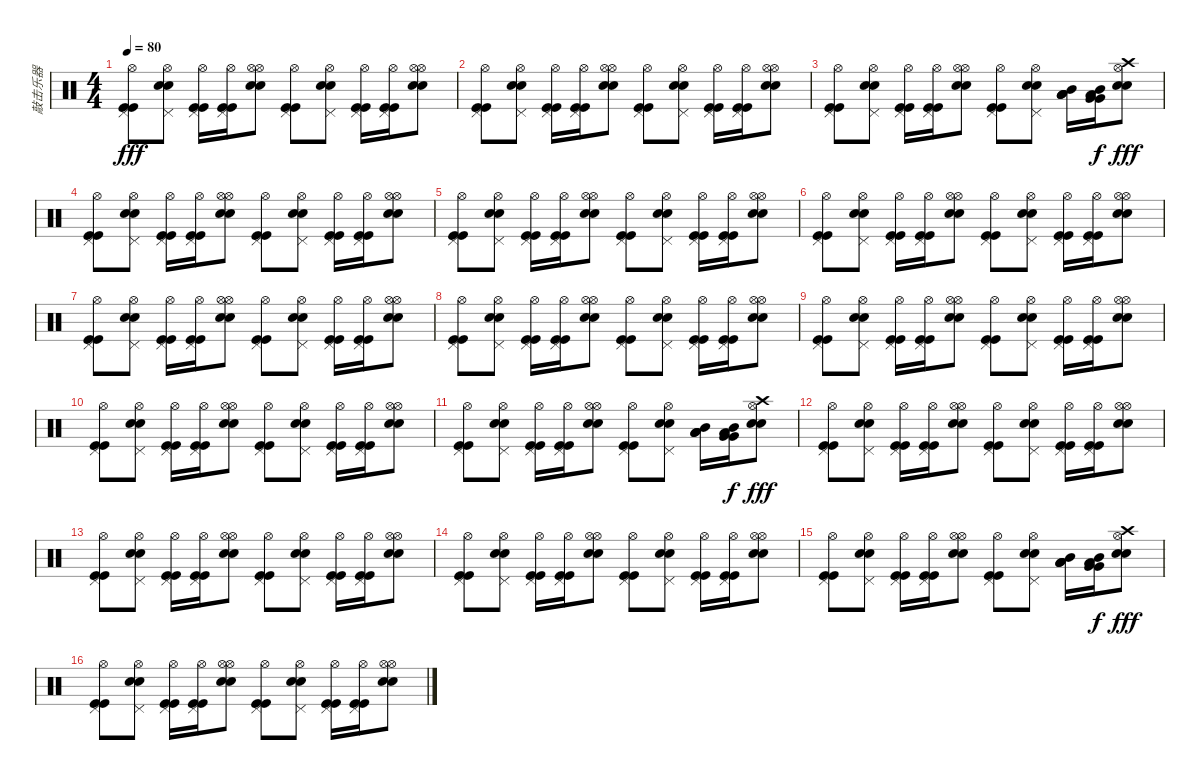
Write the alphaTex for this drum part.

\track ("敲击乐器" "敲击乐器") {instrument percussion}
\staff {score}
\articulation defaults
\ts (4 4)
\tempo 80
\clef neutral
\ks c
("Kick (hit)" "Kick (hit)" "Pedal Hi-Hat (hit)" "Hi-Hat (open)").8{dy fff} ("Electric Snare (hit)" "Electric Snare (hit)" "Pedal Hi-Hat (hit)" "Hi-Hat (open)").8 ("Kick (hit)" "Kick (hit)" "Pedal Hi-Hat (hit)" "Hi-Hat (open)").16 ("Kick (hit)" "Kick (hit)" "Pedal Hi-Hat (hit)" "Hi-Hat (open)").16 ("Electric Snare (hit)" "Electric Snare (hit)" "Hi-Hat (open)" "Hi-Hat (open)").8 ("Kick (hit)" "Kick (hit)" "Pedal Hi-Hat (hit)" "Hi-Hat (open)").8 ("Electric Snare (hit)" "Electric Snare (hit)" "Pedal Hi-Hat (hit)" "Hi-Hat (open)").8 ("Kick (hit)" "Kick (hit)" "Pedal Hi-Hat (hit)" "Hi-Hat (open)").16 ("Kick (hit)" "Kick (hit)" "Pedal Hi-Hat (hit)" "Hi-Hat (open)").16 ("Electric Snare (hit)" "Electric Snare (hit)" "Hi-Hat (open)" "Hi-Hat (open)").8 |
("Kick (hit)" "Kick (hit)" "Pedal Hi-Hat (hit)" "Hi-Hat (open)").8 ("Electric Snare (hit)" "Electric Snare (hit)" "Pedal Hi-Hat (hit)" "Hi-Hat (open)").8 ("Kick (hit)" "Kick (hit)" "Pedal Hi-Hat (hit)" "Hi-Hat (open)").16 ("Kick (hit)" "Kick (hit)" "Pedal Hi-Hat (hit)" "Hi-Hat (open)").16 ("Electric Snare (hit)" "Electric Snare (hit)" "Hi-Hat (open)" "Hi-Hat (open)").8 ("Kick (hit)" "Kick (hit)" "Pedal Hi-Hat (hit)" "Hi-Hat (open)").8 ("Electric Snare (hit)" "Electric Snare (hit)" "Pedal Hi-Hat (hit)" "Hi-Hat (open)").8 ("Kick (hit)" "Kick (hit)" "Pedal Hi-Hat (hit)" "Hi-Hat (open)").16 ("Kick (hit)" "Kick (hit)" "Pedal Hi-Hat (hit)" "Hi-Hat (open)").16 ("Electric Snare (hit)" "Electric Snare (hit)" "Hi-Hat (open)" "Hi-Hat (open)").8 |
("Kick (hit)" "Kick (hit)" "Pedal Hi-Hat (hit)" "Hi-Hat (open)").8 ("Electric Snare (hit)" "Electric Snare (hit)" "Pedal Hi-Hat (hit)" "Hi-Hat (open)").8 ("Kick (hit)" "Kick (hit)" "Pedal Hi-Hat (hit)" "Hi-Hat (open)").16 ("Kick (hit)" "Kick (hit)" "Pedal Hi-Hat (hit)" "Hi-Hat (open)").16 ("Electric Snare (hit)" "Electric Snare (hit)" "Hi-Hat (open)" "Hi-Hat (open)").8 ("Kick (hit)" "Kick (hit)" "Pedal Hi-Hat (hit)" "Hi-Hat (open)").8 ("Electric Snare (hit)" "Electric Snare (hit)" "Pedal Hi-Hat (hit)" "Hi-Hat (open)").8 ("Low Floor Tom (hit)" "Low Floor Tom (hit)" "Mid Tom (hit)" "Low Floor Tom (hit)").16 ("Very Low Tom (hit)" "Very Low Tom (hit)" "Mid Tom (hit)" "Low Floor Tom (hit)").16{dy f} ("Electric Snare (hit)" "Electric Snare (hit)" "Hi-Hat (open)" "Crash high (hit)").8{dy fff} |
("Kick (hit)" "Kick (hit)" "Pedal Hi-Hat (hit)" "Hi-Hat (open)").8 ("Electric Snare (hit)" "Electric Snare (hit)" "Pedal Hi-Hat (hit)" "Hi-Hat (open)").8 ("Kick (hit)" "Kick (hit)" "Pedal Hi-Hat (hit)" "Hi-Hat (open)").16 ("Kick (hit)" "Kick (hit)" "Pedal Hi-Hat (hit)" "Hi-Hat (open)").16 ("Electric Snare (hit)" "Electric Snare (hit)" "Hi-Hat (open)" "Hi-Hat (open)").8 ("Kick (hit)" "Kick (hit)" "Pedal Hi-Hat (hit)" "Hi-Hat (open)").8 ("Electric Snare (hit)" "Electric Snare (hit)" "Pedal Hi-Hat (hit)" "Hi-Hat (open)").8 ("Kick (hit)" "Kick (hit)" "Pedal Hi-Hat (hit)" "Hi-Hat (open)").16 ("Kick (hit)" "Kick (hit)" "Pedal Hi-Hat (hit)" "Hi-Hat (open)").16 ("Electric Snare (hit)" "Electric Snare (hit)" "Hi-Hat (open)" "Hi-Hat (open)").8 |
("Kick (hit)" "Kick (hit)" "Pedal Hi-Hat (hit)" "Hi-Hat (open)").8 ("Electric Snare (hit)" "Electric Snare (hit)" "Pedal Hi-Hat (hit)" "Hi-Hat (open)").8 ("Kick (hit)" "Kick (hit)" "Pedal Hi-Hat (hit)" "Hi-Hat (open)").16 ("Kick (hit)" "Kick (hit)" "Pedal Hi-Hat (hit)" "Hi-Hat (open)").16 ("Electric Snare (hit)" "Electric Snare (hit)" "Hi-Hat (open)" "Hi-Hat (open)").8 ("Kick (hit)" "Kick (hit)" "Pedal Hi-Hat (hit)" "Hi-Hat (open)").8 ("Electric Snare (hit)" "Electric Snare (hit)" "Pedal Hi-Hat (hit)" "Hi-Hat (open)").8 ("Kick (hit)" "Kick (hit)" "Pedal Hi-Hat (hit)" "Hi-Hat (open)").16 ("Kick (hit)" "Kick (hit)" "Pedal Hi-Hat (hit)" "Hi-Hat (open)").16 ("Electric Snare (hit)" "Electric Snare (hit)" "Hi-Hat (open)" "Hi-Hat (open)").8 |
("Kick (hit)" "Kick (hit)" "Pedal Hi-Hat (hit)" "Hi-Hat (open)").8 ("Electric Snare (hit)" "Electric Snare (hit)" "Pedal Hi-Hat (hit)" "Hi-Hat (open)").8 ("Kick (hit)" "Kick (hit)" "Pedal Hi-Hat (hit)" "Hi-Hat (open)").16 ("Kick (hit)" "Kick (hit)" "Pedal Hi-Hat (hit)" "Hi-Hat (open)").16 ("Electric Snare (hit)" "Electric Snare (hit)" "Hi-Hat (open)" "Hi-Hat (open)").8 ("Kick (hit)" "Kick (hit)" "Pedal Hi-Hat (hit)" "Hi-Hat (open)").8 ("Electric Snare (hit)" "Electric Snare (hit)" "Pedal Hi-Hat (hit)" "Hi-Hat (open)").8 ("Kick (hit)" "Kick (hit)" "Pedal Hi-Hat (hit)" "Hi-Hat (open)").16 ("Kick (hit)" "Kick (hit)" "Pedal Hi-Hat (hit)" "Hi-Hat (open)").16 ("Electric Snare (hit)" "Electric Snare (hit)" "Hi-Hat (open)" "Hi-Hat (open)").8 |
("Kick (hit)" "Kick (hit)" "Pedal Hi-Hat (hit)" "Hi-Hat (open)").8 ("Electric Snare (hit)" "Electric Snare (hit)" "Pedal Hi-Hat (hit)" "Hi-Hat (open)").8 ("Kick (hit)" "Kick (hit)" "Pedal Hi-Hat (hit)" "Hi-Hat (open)").16 ("Kick (hit)" "Kick (hit)" "Pedal Hi-Hat (hit)" "Hi-Hat (open)").16 ("Electric Snare (hit)" "Electric Snare (hit)" "Hi-Hat (open)" "Hi-Hat (open)").8 ("Kick (hit)" "Kick (hit)" "Pedal Hi-Hat (hit)" "Hi-Hat (open)").8 ("Electric Snare (hit)" "Electric Snare (hit)" "Pedal Hi-Hat (hit)" "Hi-Hat (open)").8 ("Kick (hit)" "Kick (hit)" "Pedal Hi-Hat (hit)" "Hi-Hat (open)").16 ("Kick (hit)" "Kick (hit)" "Pedal Hi-Hat (hit)" "Hi-Hat (open)").16 ("Electric Snare (hit)" "Electric Snare (hit)" "Hi-Hat (open)" "Hi-Hat (open)").8 |
("Kick (hit)" "Kick (hit)" "Pedal Hi-Hat (hit)" "Hi-Hat (open)").8 ("Electric Snare (hit)" "Electric Snare (hit)" "Pedal Hi-Hat (hit)" "Hi-Hat (open)").8 ("Kick (hit)" "Kick (hit)" "Pedal Hi-Hat (hit)" "Hi-Hat (open)").16 ("Kick (hit)" "Kick (hit)" "Pedal Hi-Hat (hit)" "Hi-Hat (open)").16 ("Electric Snare (hit)" "Electric Snare (hit)" "Hi-Hat (open)" "Hi-Hat (open)").8 ("Kick (hit)" "Kick (hit)" "Pedal Hi-Hat (hit)" "Hi-Hat (open)").8 ("Electric Snare (hit)" "Electric Snare (hit)" "Pedal Hi-Hat (hit)" "Hi-Hat (open)").8 ("Kick (hit)" "Kick (hit)" "Pedal Hi-Hat (hit)" "Hi-Hat (open)").16 ("Kick (hit)" "Kick (hit)" "Pedal Hi-Hat (hit)" "Hi-Hat (open)").16 ("Electric Snare (hit)" "Electric Snare (hit)" "Hi-Hat (open)" "Hi-Hat (open)").8 |
("Kick (hit)" "Kick (hit)" "Pedal Hi-Hat (hit)" "Hi-Hat (open)").8 ("Electric Snare (hit)" "Electric Snare (hit)" "Pedal Hi-Hat (hit)" "Hi-Hat (open)").8 ("Kick (hit)" "Kick (hit)" "Pedal Hi-Hat (hit)" "Hi-Hat (open)").16 ("Kick (hit)" "Kick (hit)" "Pedal Hi-Hat (hit)" "Hi-Hat (open)").16 ("Electric Snare (hit)" "Electric Snare (hit)" "Hi-Hat (open)" "Hi-Hat (open)").8 ("Kick (hit)" "Kick (hit)" "Pedal Hi-Hat (hit)" "Hi-Hat (open)").8 ("Electric Snare (hit)" "Electric Snare (hit)" "Pedal Hi-Hat (hit)" "Hi-Hat (open)").8 ("Kick (hit)" "Kick (hit)" "Pedal Hi-Hat (hit)" "Hi-Hat (open)").16 ("Kick (hit)" "Kick (hit)" "Pedal Hi-Hat (hit)" "Hi-Hat (open)").16 ("Electric Snare (hit)" "Electric Snare (hit)" "Hi-Hat (open)" "Hi-Hat (open)").8 |
("Kick (hit)" "Kick (hit)" "Pedal Hi-Hat (hit)" "Hi-Hat (open)").8 ("Electric Snare (hit)" "Electric Snare (hit)" "Pedal Hi-Hat (hit)" "Hi-Hat (open)").8 ("Kick (hit)" "Kick (hit)" "Pedal Hi-Hat (hit)" "Hi-Hat (open)").16 ("Kick (hit)" "Kick (hit)" "Pedal Hi-Hat (hit)" "Hi-Hat (open)").16 ("Electric Snare (hit)" "Electric Snare (hit)" "Hi-Hat (open)" "Hi-Hat (open)").8 ("Kick (hit)" "Kick (hit)" "Pedal Hi-Hat (hit)" "Hi-Hat (open)").8 ("Electric Snare (hit)" "Electric Snare (hit)" "Pedal Hi-Hat (hit)" "Hi-Hat (open)").8 ("Kick (hit)" "Kick (hit)" "Pedal Hi-Hat (hit)" "Hi-Hat (open)").16 ("Kick (hit)" "Kick (hit)" "Pedal Hi-Hat (hit)" "Hi-Hat (open)").16 ("Electric Snare (hit)" "Electric Snare (hit)" "Hi-Hat (open)" "Hi-Hat (open)").8 |
("Kick (hit)" "Kick (hit)" "Pedal Hi-Hat (hit)" "Hi-Hat (open)").8 ("Electric Snare (hit)" "Electric Snare (hit)" "Pedal Hi-Hat (hit)" "Hi-Hat (open)").8 ("Kick (hit)" "Kick (hit)" "Pedal Hi-Hat (hit)" "Hi-Hat (open)").16 ("Kick (hit)" "Kick (hit)" "Pedal Hi-Hat (hit)" "Hi-Hat (open)").16 ("Electric Snare (hit)" "Electric Snare (hit)" "Hi-Hat (open)" "Hi-Hat (open)").8 ("Kick (hit)" "Kick (hit)" "Pedal Hi-Hat (hit)" "Hi-Hat (open)").8 ("Electric Snare (hit)" "Electric Snare (hit)" "Pedal Hi-Hat (hit)" "Hi-Hat (open)").8 ("Low Floor Tom (hit)" "Low Floor Tom (hit)" "Mid Tom (hit)" "Low Floor Tom (hit)").16 ("Very Low Tom (hit)" "Very Low Tom (hit)" "Mid Tom (hit)" "Low Floor Tom (hit)").16{dy f} ("Electric Snare (hit)" "Electric Snare (hit)" "Hi-Hat (open)" "Crash high (hit)").8{dy fff} |
("Kick (hit)" "Kick (hit)" "Pedal Hi-Hat (hit)" "Hi-Hat (open)").8 ("Electric Snare (hit)" "Electric Snare (hit)" "Pedal Hi-Hat (hit)" "Hi-Hat (open)").8 ("Kick (hit)" "Kick (hit)" "Pedal Hi-Hat (hit)" "Hi-Hat (open)").16 ("Kick (hit)" "Kick (hit)" "Pedal Hi-Hat (hit)" "Hi-Hat (open)").16 ("Electric Snare (hit)" "Electric Snare (hit)" "Hi-Hat (open)" "Hi-Hat (open)").8 ("Kick (hit)" "Kick (hit)" "Pedal Hi-Hat (hit)" "Hi-Hat (open)").8 ("Electric Snare (hit)" "Electric Snare (hit)" "Pedal Hi-Hat (hit)" "Hi-Hat (open)").8 ("Kick (hit)" "Kick (hit)" "Pedal Hi-Hat (hit)" "Hi-Hat (open)").16 ("Kick (hit)" "Kick (hit)" "Pedal Hi-Hat (hit)" "Hi-Hat (open)").16 ("Electric Snare (hit)" "Electric Snare (hit)" "Hi-Hat (open)" "Hi-Hat (open)").8 |
("Kick (hit)" "Kick (hit)" "Pedal Hi-Hat (hit)" "Hi-Hat (open)").8 ("Electric Snare (hit)" "Electric Snare (hit)" "Pedal Hi-Hat (hit)" "Hi-Hat (open)").8 ("Kick (hit)" "Kick (hit)" "Pedal Hi-Hat (hit)" "Hi-Hat (open)").16 ("Kick (hit)" "Kick (hit)" "Pedal Hi-Hat (hit)" "Hi-Hat (open)").16 ("Electric Snare (hit)" "Electric Snare (hit)" "Hi-Hat (open)" "Hi-Hat (open)").8 ("Kick (hit)" "Kick (hit)" "Pedal Hi-Hat (hit)" "Hi-Hat (open)").8 ("Electric Snare (hit)" "Electric Snare (hit)" "Pedal Hi-Hat (hit)" "Hi-Hat (open)").8 ("Kick (hit)" "Kick (hit)" "Pedal Hi-Hat (hit)" "Hi-Hat (open)").16 ("Kick (hit)" "Kick (hit)" "Pedal Hi-Hat (hit)" "Hi-Hat (open)").16 ("Electric Snare (hit)" "Electric Snare (hit)" "Hi-Hat (open)" "Hi-Hat (open)").8 |
("Kick (hit)" "Kick (hit)" "Pedal Hi-Hat (hit)" "Hi-Hat (open)").8 ("Electric Snare (hit)" "Electric Snare (hit)" "Pedal Hi-Hat (hit)" "Hi-Hat (open)").8 ("Kick (hit)" "Kick (hit)" "Pedal Hi-Hat (hit)" "Hi-Hat (open)").16 ("Kick (hit)" "Kick (hit)" "Pedal Hi-Hat (hit)" "Hi-Hat (open)").16 ("Electric Snare (hit)" "Electric Snare (hit)" "Hi-Hat (open)" "Hi-Hat (open)").8 ("Kick (hit)" "Kick (hit)" "Pedal Hi-Hat (hit)" "Hi-Hat (open)").8 ("Electric Snare (hit)" "Electric Snare (hit)" "Pedal Hi-Hat (hit)" "Hi-Hat (open)").8 ("Kick (hit)" "Kick (hit)" "Pedal Hi-Hat (hit)" "Hi-Hat (open)").16 ("Kick (hit)" "Kick (hit)" "Pedal Hi-Hat (hit)" "Hi-Hat (open)").16 ("Electric Snare (hit)" "Electric Snare (hit)" "Hi-Hat (open)" "Hi-Hat (open)").8 |
("Kick (hit)" "Kick (hit)" "Pedal Hi-Hat (hit)" "Hi-Hat (open)").8 ("Electric Snare (hit)" "Electric Snare (hit)" "Pedal Hi-Hat (hit)" "Hi-Hat (open)").8 ("Kick (hit)" "Kick (hit)" "Pedal Hi-Hat (hit)" "Hi-Hat (open)").16 ("Kick (hit)" "Kick (hit)" "Pedal Hi-Hat (hit)" "Hi-Hat (open)").16 ("Electric Snare (hit)" "Electric Snare (hit)" "Hi-Hat (open)" "Hi-Hat (open)").8 ("Kick (hit)" "Kick (hit)" "Pedal Hi-Hat (hit)" "Hi-Hat (open)").8 ("Electric Snare (hit)" "Electric Snare (hit)" "Pedal Hi-Hat (hit)" "Hi-Hat (open)").8 ("Low Floor Tom (hit)" "Low Floor Tom (hit)" "Mid Tom (hit)" "Low Floor Tom (hit)").16 ("Very Low Tom (hit)" "Very Low Tom (hit)" "Mid Tom (hit)" "Low Floor Tom (hit)").16{dy f} ("Electric Snare (hit)" "Electric Snare (hit)" "Hi-Hat (open)" "Crash high (hit)").8{dy fff} |
("Kick (hit)" "Kick (hit)" "Pedal Hi-Hat (hit)" "Hi-Hat (open)").8 ("Electric Snare (hit)" "Electric Snare (hit)" "Pedal Hi-Hat (hit)" "Hi-Hat (open)").8 ("Kick (hit)" "Kick (hit)" "Pedal Hi-Hat (hit)" "Hi-Hat (open)").16 ("Kick (hit)" "Kick (hit)" "Pedal Hi-Hat (hit)" "Hi-Hat (open)").16 ("Electric Snare (hit)" "Electric Snare (hit)" "Hi-Hat (open)" "Hi-Hat (open)").8 ("Kick (hit)" "Kick (hit)" "Pedal Hi-Hat (hit)" "Hi-Hat (open)").8 ("Electric Snare (hit)" "Electric Snare (hit)" "Pedal Hi-Hat (hit)" "Hi-Hat (open)").8 ("Kick (hit)" "Kick (hit)" "Pedal Hi-Hat (hit)" "Hi-Hat (open)").16 ("Kick (hit)" "Kick (hit)" "Pedal Hi-Hat (hit)" "Hi-Hat (open)").16 ("Electric Snare (hit)" "Electric Snare (hit)" "Hi-Hat (open)" "Hi-Hat (open)").8
